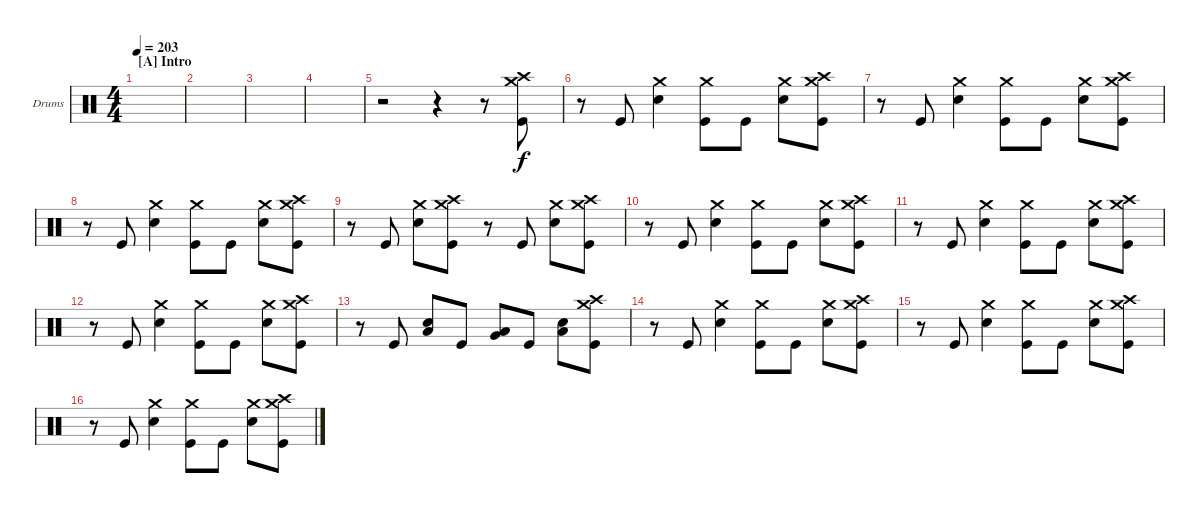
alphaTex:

\defaultSystemsLayout 4
\bracketExtendMode groupsimilarinstruments
\firstSystemTrackNameOrientation horizontal
\otherSystemsTrackNameOrientation horizontal
\track ("Brandon Barnes - Drums" "Drums") {instrument percussion}
\staff {score}
\articulation defaults
\ts (4 4)
\section ("A" "Intro")
\tempo 203
\clef neutral
\ks c
|
|
|
|
r.2 r.4 r.8 ("Kick (hit)" "Crash high (hit)" "Crash medium (hit)").8 |
r.8 "Kick (hit)".8 ("Snare (hit) 2" "Crash medium (hit)").4 ("Kick (hit)" "Crash medium (hit)").8 "Kick (hit)".8 ("Snare (hit) 2" "Crash medium (hit)").8 ("Kick (hit)" "Crash medium (hit)" "Crash high (hit)").8 |
r.8 "Kick (hit)".8 ("Snare (hit) 2" "Crash medium (hit)").4 ("Kick (hit)" "Crash medium (hit)").8 "Kick (hit)".8 ("Snare (hit) 2" "Crash medium (hit)").8 ("Kick (hit)" "Crash medium (hit)" "Crash high (hit)").8 |
r.8 "Kick (hit)".8 ("Snare (hit) 2" "Crash medium (hit)").4 ("Kick (hit)" "Crash medium (hit)").8 "Kick (hit)".8 ("Snare (hit) 2" "Crash medium (hit)").8 ("Kick (hit)" "Crash medium (hit)" "Crash high (hit)").8 |
r.8 "Kick (hit)".8 ("Snare (hit) 2" "Crash medium (hit)").8 ("Kick (hit)" "Crash medium (hit)" "Crash high (hit)").8 r.8 "Kick (hit)".8 ("Snare (hit) 2" "Crash medium (hit)").8 ("Kick (hit)" "Crash medium (hit)" "Crash high (hit)").8 |
r.8 "Kick (hit)".8 ("Snare (hit) 2" "Crash medium (hit)").4 ("Kick (hit)" "Crash medium (hit)").8 "Kick (hit)".8 ("Snare (hit) 2" "Crash medium (hit)").8 ("Kick (hit)" "Crash medium (hit)" "Crash high (hit)").8 |
r.8 "Kick (hit)".8 ("Snare (hit) 2" "Crash medium (hit)").4 ("Kick (hit)" "Crash medium (hit)").8 "Kick (hit)".8 ("Snare (hit) 2" "Crash medium (hit)").8 ("Kick (hit)" "Crash medium (hit)" "Crash high (hit)").8 |
r.8 "Kick (hit)".8 ("Snare (hit) 2" "Crash medium (hit)").4 ("Kick (hit)" "Crash medium (hit)").8 "Kick (hit)".8 ("Snare (hit) 2" "Crash medium (hit)").8 ("Kick (hit)" "Crash medium (hit)" "Crash high (hit)").8 |
r.8 "Kick (hit)".8 ("Low Tom (hit)" "Snare (hit) 2").8 "Kick (hit)".8 ("Very Low Tom (hit)" "Low Tom (hit)").8 "Kick (hit)".8 ("Low Tom (hit)" "Snare (hit) 2").8 ("Kick (hit)" "Crash medium (hit)" "Crash high (hit)").8 |
r.8 "Kick (hit)".8 ("Snare (hit) 2" "Crash medium (hit)").4 ("Kick (hit)" "Crash medium (hit)").8 "Kick (hit)".8 ("Snare (hit) 2" "Crash medium (hit)").8 ("Kick (hit)" "Crash medium (hit)" "Crash high (hit)").8 |
r.8 "Kick (hit)".8 ("Snare (hit) 2" "Crash medium (hit)").4 ("Kick (hit)" "Crash medium (hit)").8 "Kick (hit)".8 ("Snare (hit) 2" "Crash medium (hit)").8 ("Kick (hit)" "Crash medium (hit)" "Crash high (hit)").8 |
r.8 "Kick (hit)".8 ("Snare (hit) 2" "Crash medium (hit)").4 ("Kick (hit)" "Crash medium (hit)").8 "Kick (hit)".8 ("Snare (hit) 2" "Crash medium (hit)").8 ("Kick (hit)" "Crash medium (hit)" "Crash high (hit)").8
